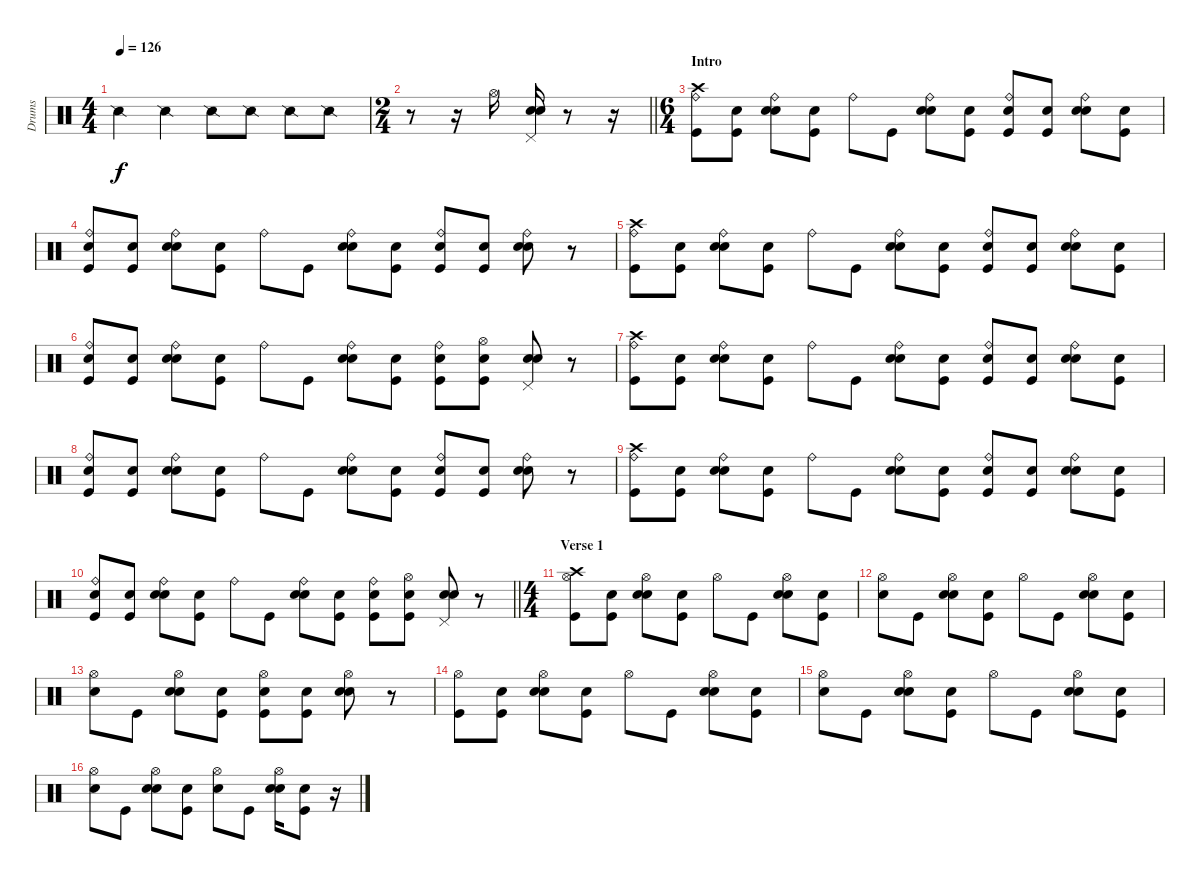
\track ("Drums" "Drums") {instrument percussion}
\staff {score}
\articulation defaults
\ts (4 4)
\tempo 126
\clef neutral
\ks c "Snare (side stick) 2".4{dy f} "Snare (side stick) 2".4 "Snare (side stick) 2".8 "Snare (side stick) 2".8 "Snare (side stick) 2".8 "Snare (side stick) 2".8
|
\ts (2 4)
\barLineRight lightlight
r.8 r.16 "Hi-Hat (open)".16 ("Snare (hit)" "Electric Snare (hit)" "Pedal Hi-Hat (hit)").16 r.8 r.16 |
\ts (6 4)
\section ("" "Intro")
("Ride (bell)" "Kick (hit)" "Crash high (hit)").8 ("Snare (hit)" "Kick (hit)").8 ("Snare (hit)" "Ride (bell)" "Electric Snare (hit)").8 ("Snare (hit)" "Kick (hit)").8 "Ride (bell)".8 "Kick (hit)".8 ("Snare (hit)" "Ride (bell)" "Electric Snare (hit)").8 ("Snare (hit)" "Kick (hit)").8 ("Snare (hit)" "Kick (hit)" "Ride (bell)").8 ("Snare (hit)" "Kick (hit)").8 ("Snare (hit)" "Electric Snare (hit)" "Ride (bell)").8 ("Snare (hit)" "Kick (hit)").8 |
("Snare (hit)" "Ride (bell)" "Kick (hit)").8 ("Snare (hit)" "Kick (hit)").8 ("Snare (hit)" "Ride (bell)" "Electric Snare (hit)").8 ("Snare (hit)" "Kick (hit)").8 "Ride (bell)".8 "Kick (hit)".8 ("Snare (hit)" "Electric Snare (hit)" "Ride (bell)").8 ("Snare (hit)" "Kick (hit)").8 ("Snare (hit)" "Kick (hit)" "Ride (bell)").8 ("Snare (hit)" "Kick (hit)").8 ("Snare (hit)" "Electric Snare (hit)" "Ride (bell)").8 r.8 |
("Ride (bell)" "Kick (hit)" "Crash high (hit)").8 ("Snare (hit)" "Kick (hit)").8 ("Snare (hit)" "Ride (bell)" "Electric Snare (hit)").8 ("Snare (hit)" "Kick (hit)").8 "Ride (bell)".8 "Kick (hit)".8 ("Snare (hit)" "Ride (bell)" "Electric Snare (hit)").8 ("Snare (hit)" "Kick (hit)").8 ("Snare (hit)" "Kick (hit)" "Ride (bell)").8 ("Snare (hit)" "Kick (hit)").8 ("Snare (hit)" "Electric Snare (hit)" "Ride (bell)").8 ("Snare (hit)" "Kick (hit)").8 |
("Snare (hit)" "Ride (bell)" "Kick (hit)").8 ("Snare (hit)" "Kick (hit)").8 ("Snare (hit)" "Electric Snare (hit)" "Ride (bell)").8 ("Snare (hit)" "Kick (hit)").8 "Ride (bell)".8 "Kick (hit)".8 ("Snare (hit)" "Electric Snare (hit)" "Ride (bell)").8 ("Snare (hit)" "Kick (hit)").8 ("Snare (hit)" "Ride (bell)" "Kick (hit)").8 ("Snare (hit)" "Kick (hit)" "Hi-Hat (open)").8 ("Snare (hit)" "Electric Snare (hit)" "Pedal Hi-Hat (hit)").8 r.8 |
("Ride (bell)" "Kick (hit)" "Crash high (hit)").8 ("Snare (hit)" "Kick (hit)").8 ("Snare (hit)" "Ride (bell)" "Electric Snare (hit)").8 ("Snare (hit)" "Kick (hit)").8 "Ride (bell)".8 "Kick (hit)".8 ("Snare (hit)" "Ride (bell)" "Electric Snare (hit)").8 ("Snare (hit)" "Kick (hit)").8 ("Snare (hit)" "Kick (hit)" "Ride (bell)").8 ("Snare (hit)" "Kick (hit)").8 ("Snare (hit)" "Ride (bell)" "Electric Snare (hit)").8 ("Snare (hit)" "Kick (hit)").8 |
("Snare (hit)" "Ride (bell)" "Kick (hit)").8 ("Snare (hit)" "Kick (hit)").8 ("Snare (hit)" "Ride (bell)" "Electric Snare (hit)").8 ("Snare (hit)" "Kick (hit)").8 "Ride (bell)".8 "Kick (hit)".8 ("Snare (hit)" "Ride (bell)" "Electric Snare (hit)").8 ("Snare (hit)" "Kick (hit)").8 ("Snare (hit)" "Ride (bell)" "Kick (hit)").8 ("Snare (hit)" "Kick (hit)").8 ("Snare (hit)" "Ride (bell)" "Electric Snare (hit)").8 r.8 |
("Ride (bell)" "Kick (hit)" "Crash high (hit)").8 ("Snare (hit)" "Kick (hit)").8 ("Snare (hit)" "Ride (bell)" "Electric Snare (hit)").8 ("Snare (hit)" "Kick (hit)").8 "Ride (bell)".8 "Kick (hit)".8 ("Snare (hit)" "Ride (bell)" "Electric Snare (hit)").8 ("Snare (hit)" "Kick (hit)").8 ("Snare (hit)" "Ride (bell)" "Kick (hit)").8 ("Snare (hit)" "Kick (hit)").8 ("Snare (hit)" "Electric Snare (hit)" "Ride (bell)").8 ("Snare (hit)" "Kick (hit)").8 |
\barLineRight lightlight
("Snare (hit)" "Ride (bell)" "Kick (hit)").8 ("Snare (hit)" "Kick (hit)").8 ("Snare (hit)" "Ride (bell)" "Electric Snare (hit)").8 ("Snare (hit)" "Kick (hit)").8 "Ride (bell)".8 "Kick (hit)".8 ("Snare (hit)" "Electric Snare (hit)" "Ride (bell)").8 ("Snare (hit)" "Kick (hit)").8 ("Snare (hit)" "Ride (bell)" "Kick (hit)").8 ("Snare (hit)" "Hi-Hat (open)" "Kick (hit)").8 ("Snare (hit)" "Pedal Hi-Hat (hit)" "Electric Snare (hit)").8 r.8 |
\ts (4 4)
\section ("" "Verse 1")
("Kick (hit)" "Hi-Hat (open)" "Crash high (hit)").8 ("Snare (hit)" "Kick (hit)").8 ("Snare (hit)" "Electric Snare (hit)" "Hi-Hat (open)").8 ("Snare (hit)" "Kick (hit)").8 "Hi-Hat (open)".8 "Kick (hit)".8 ("Snare (hit)" "Hi-Hat (open)" "Electric Snare (hit)").8 ("Snare (hit)" "Kick (hit)").8 |
("Snare (hit)" "Hi-Hat (open)").8 "Kick (hit)".8 ("Snare (hit)" "Hi-Hat (open)" "Electric Snare (hit)").8 ("Snare (hit)" "Kick (hit)").8 "Hi-Hat (open)".8 "Kick (hit)".8 ("Snare (hit)" "Hi-Hat (open)" "Electric Snare (hit)").8 ("Snare (hit)" "Kick (hit)").8 |
("Snare (hit)" "Hi-Hat (open)").8 "Kick (hit)".8 ("Snare (hit)" "Electric Snare (hit)" "Hi-Hat (open)").8 ("Snare (hit)" "Kick (hit)").8 ("Snare (hit)" "Kick (hit)" "Hi-Hat (open)").8 ("Snare (hit)" "Kick (hit)").8 ("Snare (hit)" "Electric Snare (hit)" "Hi-Hat (open)").8 r.8 |
("Kick (hit)" "Hi-Hat (open)").8 ("Snare (hit)" "Kick (hit)").8 ("Snare (hit)" "Electric Snare (hit)" "Hi-Hat (open)").8 ("Snare (hit)" "Kick (hit)").8 "Hi-Hat (open)".8 "Kick (hit)".8 ("Snare (hit)" "Electric Snare (hit)" "Hi-Hat (open)").8 ("Snare (hit)" "Kick (hit)").8 |
("Snare (hit)" "Hi-Hat (open)").8 "Kick (hit)".8 ("Snare (hit)" "Electric Snare (hit)" "Hi-Hat (open)").8 ("Snare (hit)" "Kick (hit)").8 "Hi-Hat (open)".8 "Kick (hit)".8 ("Snare (hit)" "Electric Snare (hit)" "Hi-Hat (open)").8 ("Snare (hit)" "Kick (hit)").8 |
("Snare (hit)" "Hi-Hat (open)").8 "Kick (hit)".8 ("Snare (hit)" "Hi-Hat (open)" "Electric Snare (hit)").8 ("Snare (hit)" "Kick (hit)").8 ("Snare (hit)" "Hi-Hat (open)").8 "Kick (hit)".8 ("Snare (hit)" "Hi-Hat (open)" "Electric Snare (hit)").16 ("Snare (hit)" "Kick (hit)").8 r.16
